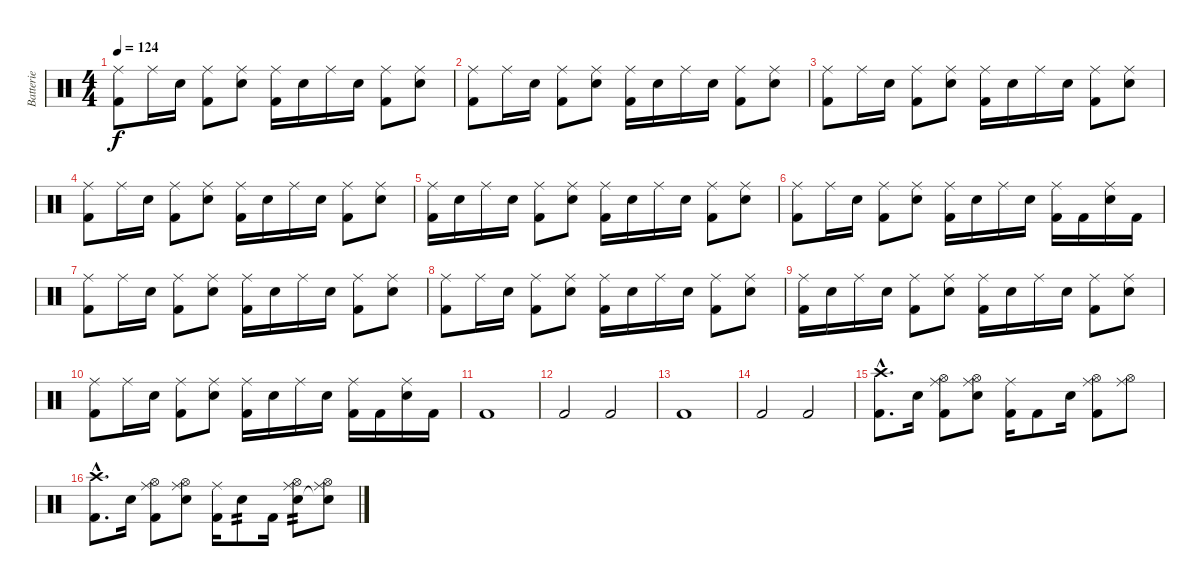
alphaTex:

\track ("Batterie" "Batterie") {instrument percussion}
\staff {score}
\articulation defaults
\ts (4 4)
\tempo 124
\clef neutral
\ks c
("Ride (middle)" "Kick (hit) 2").8{dy f} "Ride (middle)".16 "Electric Snare (hit)".16 ("Ride (middle)" "Kick (hit) 2").8 ("Ride (middle)" "Electric Snare (hit)").8 ("Ride (middle)" "Kick (hit) 2").16 "Electric Snare (hit)".16 "Ride (middle)".16 "Electric Snare (hit)".16 ("Ride (middle)" "Kick (hit) 2").8 ("Ride (middle)" "Electric Snare (hit)").8 |
("Ride (middle)" "Kick (hit) 2").8 "Ride (middle)".16 "Electric Snare (hit)".16 ("Ride (middle)" "Kick (hit) 2").8 ("Ride (middle)" "Electric Snare (hit)").8 ("Ride (middle)" "Kick (hit) 2").16 "Electric Snare (hit)".16 "Ride (middle)".16 "Electric Snare (hit)".16 ("Ride (middle)" "Kick (hit) 2").8 ("Ride (middle)" "Electric Snare (hit)").8 |
("Ride (middle)" "Kick (hit) 2").8 "Ride (middle)".16 "Electric Snare (hit)".16 ("Ride (middle)" "Kick (hit) 2").8 ("Ride (middle)" "Electric Snare (hit)").8 ("Ride (middle)" "Kick (hit) 2").16 "Electric Snare (hit)".16 "Ride (middle)".16 "Electric Snare (hit)".16 ("Ride (middle)" "Kick (hit) 2").8 ("Ride (middle)" "Electric Snare (hit)").8 |
("Ride (middle)" "Kick (hit) 2").8 "Ride (middle)".16 "Electric Snare (hit)".16 ("Ride (middle)" "Kick (hit) 2").8 ("Ride (middle)" "Electric Snare (hit)").8 ("Ride (middle)" "Kick (hit) 2").16 "Electric Snare (hit)".16 "Ride (middle)".16 "Electric Snare (hit)".16 ("Ride (middle)" "Kick (hit) 2").8 ("Ride (middle)" "Electric Snare (hit)").8 |
("Ride (middle)" "Kick (hit) 2").16 "Electric Snare (hit)".16 "Ride (middle)".16 "Electric Snare (hit)".16 ("Ride (middle)" "Kick (hit) 2").8 ("Ride (middle)" "Electric Snare (hit)").8 ("Ride (middle)" "Kick (hit) 2").16 "Electric Snare (hit)".16 "Ride (middle)".16 "Electric Snare (hit)".16 ("Ride (middle)" "Kick (hit) 2").8 ("Ride (middle)" "Electric Snare (hit)").8 |
("Ride (middle)" "Kick (hit) 2").8 "Ride (middle)".16 "Electric Snare (hit)".16 ("Ride (middle)" "Kick (hit) 2").8 ("Ride (middle)" "Electric Snare (hit)").8 ("Ride (middle)" "Kick (hit) 2").16 "Electric Snare (hit)".16 "Ride (middle)".16 "Electric Snare (hit)".16 ("Ride (middle)" "Kick (hit) 2").16 "Kick (hit) 2".16 ("Ride (middle)" "Electric Snare (hit)").16 "Kick (hit) 2".16 |
("Ride (middle)" "Kick (hit) 2").8 "Ride (middle)".16 "Electric Snare (hit)".16 ("Ride (middle)" "Kick (hit) 2").8 ("Ride (middle)" "Electric Snare (hit)").8 ("Ride (middle)" "Kick (hit) 2").16 "Electric Snare (hit)".16 "Ride (middle)".16 "Electric Snare (hit)".16 ("Ride (middle)" "Kick (hit) 2").8 ("Ride (middle)" "Electric Snare (hit)").8 |
("Ride (middle)" "Kick (hit) 2").8 "Ride (middle)".16 "Electric Snare (hit)".16 ("Ride (middle)" "Kick (hit) 2").8 ("Ride (middle)" "Electric Snare (hit)").8 ("Ride (middle)" "Kick (hit) 2").16 "Electric Snare (hit)".16 "Ride (middle)".16 "Electric Snare (hit)".16 ("Ride (middle)" "Kick (hit) 2").8 ("Ride (middle)" "Electric Snare (hit)").8 |
("Ride (middle)" "Kick (hit) 2").16 "Electric Snare (hit)".16 "Ride (middle)".16 "Electric Snare (hit)".16 ("Ride (middle)" "Kick (hit) 2").8 ("Ride (middle)" "Electric Snare (hit)").8 ("Ride (middle)" "Kick (hit) 2").16 "Electric Snare (hit)".16 "Ride (middle)".16 "Electric Snare (hit)".16 ("Ride (middle)" "Kick (hit) 2").8 ("Ride (middle)" "Electric Snare (hit)").8 |
("Ride (middle)" "Kick (hit) 2").8 "Ride (middle)".16 "Electric Snare (hit)".16 ("Ride (middle)" "Kick (hit) 2").8 ("Ride (middle)" "Electric Snare (hit)").8 ("Ride (middle)" "Kick (hit) 2").16 "Electric Snare (hit)".16 "Ride (middle)".16 "Electric Snare (hit)".16 ("Ride (middle)" "Kick (hit) 2").16 "Kick (hit) 2".16 ("Ride (middle)" "Electric Snare (hit)").16 "Kick (hit) 2".16 |
"Kick (hit) 2".1 |
"Kick (hit) 2".2 "Kick (hit) 2".2 |
"Kick (hit) 2".1 |
"Kick (hit) 2".2 "Kick (hit) 2".2 |
("Crash high (hit)"{hac} "Kick (hit) 2"{hac}).8{d} "Electric Snare (hit)".16 ("Ride (middle)" "Hi-Hat (open)" "Kick (hit) 2").8 ("Ride (middle)" "Hi-Hat (open)" "Electric Snare (hit)").8 ("Ride (middle)" "Kick (hit) 2").16 "Kick (hit) 2".8 "Electric Snare (hit)".16 ("Ride (middle)" "Hi-Hat (open)" "Kick (hit) 2").8 ("Ride (middle)" "Hi-Hat (open)").8 |
("Crash high (hit)"{hac} "Kick (hit) 2"{hac}).8{d} "Electric Snare (hit)".16 ("Ride (middle)" "Hi-Hat (open)" "Kick (hit) 2").8 ("Ride (middle)" "Hi-Hat (open)" "Electric Snare (hit)").8 ("Ride (middle)" "Kick (hit) 2").16 "Electric Snare (hit)".8{tp 2} "Kick (hit) 2".16 ("Ride (middle)" "Hi-Hat (open)" "Electric Snare (hit)").8{tp 2} ("Ride (middle)" "Hi-Hat (open)" "Snare (hit)"{t}).8
